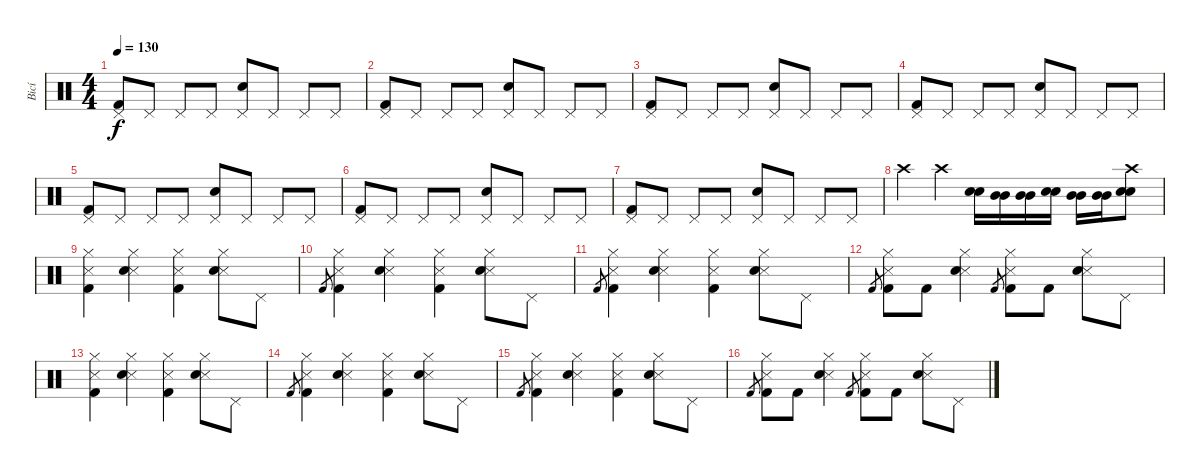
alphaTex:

\track ("Bicí" "Bicí") {instrument percussion}
\staff {score}
\articulation defaults
\ts (4 4)
\tempo 130
\clef neutral
\ks c
("Kick (hit) 2" "Pedal Hi-Hat (hit)").8{dy f} "Pedal Hi-Hat (hit)".8 "Pedal Hi-Hat (hit)".8 "Pedal Hi-Hat (hit)".8 ("Pedal Hi-Hat (hit)" "Snare (hit) 2").8 "Pedal Hi-Hat (hit)".8 "Pedal Hi-Hat (hit)".8 "Pedal Hi-Hat (hit)".8 |
("Kick (hit) 2" "Pedal Hi-Hat (hit)").8 "Pedal Hi-Hat (hit)".8 "Pedal Hi-Hat (hit)".8 "Pedal Hi-Hat (hit)".8 ("Pedal Hi-Hat (hit)" "Snare (hit) 2").8 "Pedal Hi-Hat (hit)".8 "Pedal Hi-Hat (hit)".8 "Pedal Hi-Hat (hit)".8 |
("Kick (hit) 2" "Pedal Hi-Hat (hit)").8 "Pedal Hi-Hat (hit)".8 "Pedal Hi-Hat (hit)".8 "Pedal Hi-Hat (hit)".8 ("Pedal Hi-Hat (hit)" "Snare (hit) 2").8 "Pedal Hi-Hat (hit)".8 "Pedal Hi-Hat (hit)".8 "Pedal Hi-Hat (hit)".8 |
("Kick (hit) 2" "Pedal Hi-Hat (hit)").8 "Pedal Hi-Hat (hit)".8 "Pedal Hi-Hat (hit)".8 "Pedal Hi-Hat (hit)".8 ("Pedal Hi-Hat (hit)" "Snare (hit) 2").8 "Pedal Hi-Hat (hit)".8 "Pedal Hi-Hat (hit)".8 "Pedal Hi-Hat (hit)".8 |
("Kick (hit) 2" "Pedal Hi-Hat (hit)").8 "Pedal Hi-Hat (hit)".8 "Pedal Hi-Hat (hit)".8 "Pedal Hi-Hat (hit)".8 ("Pedal Hi-Hat (hit)" "Snare (hit) 2").8 "Pedal Hi-Hat (hit)".8 "Pedal Hi-Hat (hit)".8 "Pedal Hi-Hat (hit)".8 |
("Kick (hit) 2" "Pedal Hi-Hat (hit)").8 "Pedal Hi-Hat (hit)".8 "Pedal Hi-Hat (hit)".8 "Pedal Hi-Hat (hit)".8 ("Pedal Hi-Hat (hit)" "Snare (hit) 2").8 "Pedal Hi-Hat (hit)".8 "Pedal Hi-Hat (hit)".8 "Pedal Hi-Hat (hit)".8 |
("Kick (hit) 2" "Pedal Hi-Hat (hit)").8 "Pedal Hi-Hat (hit)".8 "Pedal Hi-Hat (hit)".8 "Pedal Hi-Hat (hit)".8 ("Pedal Hi-Hat (hit)" "Snare (hit) 2").8 "Pedal Hi-Hat (hit)".8 "Pedal Hi-Hat (hit)".8 "Pedal Hi-Hat (hit)".8 |
"Crash high (hit)".4 "Crash high (hit)".4 ("Snare (hit) 2" "Snare (hit) 2").16 ("Mid Tom (hit)" "Mid Tom (hit)").16 ("Mid Tom (hit)" "Mid Tom (hit)").16 ("Snare (hit) 2" "Snare (hit) 2").16 ("Mid Tom (hit)" "Mid Tom (hit)").16 ("Mid Tom (hit)" "Mid Tom (hit)").16 ("Snare (hit) 2" "Snare (hit) 2" "Crash high (hit)").8 |
("Snare (side stick) 3" "Hi-Hat (closed)" "Kick (hit) 2").4 ("Snare (side stick) 3" "Hi-Hat (closed)" "Snare (hit) 2").4 ("Snare (side stick) 3" "Hi-Hat (closed)" "Kick (hit) 2").4 ("Snare (side stick) 3" "Hi-Hat (closed)" "Snare (hit) 2").8 "Pedal Hi-Hat (hit)".8 |
"Kick (hit) 2".8{gr} ("Snare (side stick) 3" "Hi-Hat (closed)" "Kick (hit) 2").4 ("Snare (side stick) 3" "Hi-Hat (closed)" "Snare (hit) 2").4 ("Snare (side stick) 3" "Hi-Hat (closed)" "Kick (hit) 2").4 ("Snare (side stick) 3" "Hi-Hat (closed)" "Snare (hit) 2").8 "Pedal Hi-Hat (hit)".8 |
"Kick (hit) 2".8{gr} ("Snare (side stick) 3" "Hi-Hat (closed)" "Kick (hit) 2").4 ("Snare (side stick) 3" "Hi-Hat (closed)" "Snare (hit) 2").4 ("Snare (side stick) 3" "Hi-Hat (closed)" "Kick (hit) 2").4 ("Snare (side stick) 3" "Hi-Hat (closed)" "Snare (hit) 2").8 "Pedal Hi-Hat (hit)".8 |
"Kick (hit) 2".8{gr} ("Snare (side stick) 3" "Hi-Hat (closed)" "Kick (hit) 2").8 "Kick (hit) 2".8 ("Snare (side stick) 3" "Hi-Hat (closed)" "Snare (hit) 2").4 "Kick (hit) 2".8{gr} ("Snare (side stick) 3" "Hi-Hat (closed)" "Kick (hit) 2").8 "Kick (hit) 2".8 ("Snare (side stick) 3" "Hi-Hat (closed)" "Snare (hit) 2").8 "Pedal Hi-Hat (hit)".8 |
("Snare (side stick) 3" "Hi-Hat (closed)" "Kick (hit) 2").4 ("Snare (side stick) 3" "Hi-Hat (closed)" "Snare (hit) 2").4 ("Snare (side stick) 3" "Hi-Hat (closed)" "Kick (hit) 2").4 ("Snare (side stick) 3" "Hi-Hat (closed)" "Snare (hit) 2").8 "Pedal Hi-Hat (hit)".8 |
"Kick (hit) 2".8{gr} ("Snare (side stick) 3" "Hi-Hat (closed)" "Kick (hit) 2").4 ("Snare (side stick) 3" "Hi-Hat (closed)" "Snare (hit) 2").4 ("Snare (side stick) 3" "Hi-Hat (closed)" "Kick (hit) 2").4 ("Snare (side stick) 3" "Hi-Hat (closed)" "Snare (hit) 2").8 "Pedal Hi-Hat (hit)".8 |
"Kick (hit) 2".8{gr} ("Snare (side stick) 3" "Hi-Hat (closed)" "Kick (hit) 2").4 ("Snare (side stick) 3" "Hi-Hat (closed)" "Snare (hit) 2").4 ("Snare (side stick) 3" "Hi-Hat (closed)" "Kick (hit) 2").4 ("Snare (side stick) 3" "Hi-Hat (closed)" "Snare (hit) 2").8 "Pedal Hi-Hat (hit)".8 |
"Kick (hit) 2".8{gr} ("Snare (side stick) 3" "Hi-Hat (closed)" "Kick (hit) 2").8 "Kick (hit) 2".8 ("Snare (side stick) 3" "Hi-Hat (closed)" "Snare (hit) 2").4 "Kick (hit) 2".8{gr} ("Snare (side stick) 3" "Hi-Hat (closed)" "Kick (hit) 2").8 "Kick (hit) 2".8 ("Snare (side stick) 3" "Hi-Hat (closed)" "Snare (hit) 2").8 "Pedal Hi-Hat (hit)".8
